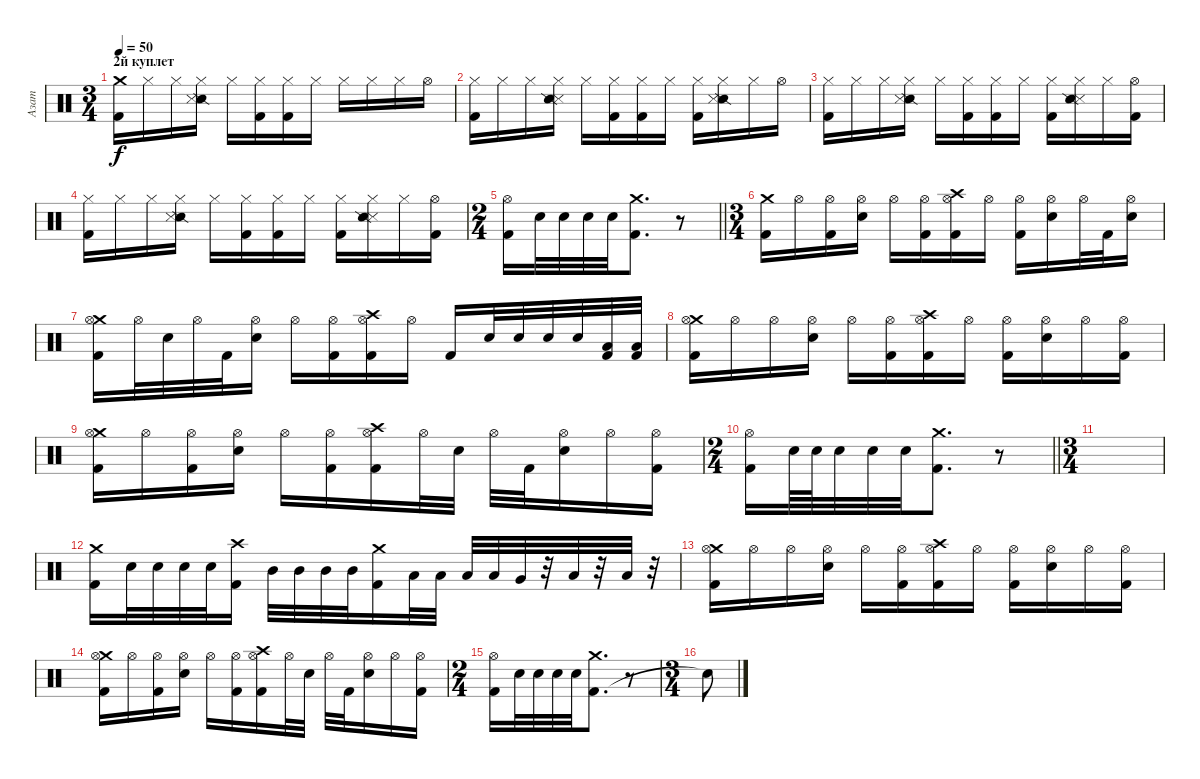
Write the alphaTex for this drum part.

\track ("Азат" "Азат") {instrument percussion}
\staff {score}
\articulation defaults
\ts (3 4)
\section ("" "2й куплет")
\tempo 50
\clef neutral
\ks c
("Crash medium (hit)" "Kick (hit) 2").16{dy f} "Hi-Hat (closed)".16 "Hi-Hat (closed)".16 ("Snare (side stick) 2" "Snare (side stick) 3" "Hi-Hat (closed)").16 "Hi-Hat (closed)".16 ("Kick (hit) 2" "Hi-Hat (closed)").16 ("Kick (hit) 2" "Hi-Hat (closed)").16 "Hi-Hat (closed)".16 "Hi-Hat (closed)".16 "Hi-Hat (closed)".16 "Hi-Hat (closed)".16 "Hi-Hat (open)".16 |
("Kick (hit) 2" "Hi-Hat (closed)").16 "Hi-Hat (closed)".16 "Hi-Hat (closed)".16 ("Snare (side stick) 3" "Snare (side stick) 2" "Hi-Hat (closed)").16 "Hi-Hat (closed)".16 ("Kick (hit) 2" "Hi-Hat (closed)").16 ("Kick (hit) 2" "Hi-Hat (closed)").16 "Hi-Hat (closed)".16 ("Kick (hit) 2" "Hi-Hat (closed)").16 ("Snare (side stick) 2" "Snare (side stick) 3" "Hi-Hat (closed)").16 "Hi-Hat (closed)".16 "Hi-Hat (open)".16 |
("Kick (hit) 2" "Hi-Hat (closed)").16 "Hi-Hat (closed)".16 "Hi-Hat (closed)".16 ("Snare (side stick) 2" "Snare (side stick) 3" "Hi-Hat (closed)").16 "Hi-Hat (closed)".16 ("Kick (hit) 2" "Hi-Hat (closed)").16 ("Kick (hit) 2" "Hi-Hat (closed)").16 "Hi-Hat (closed)".16 ("Kick (hit) 2" "Hi-Hat (closed)").16 ("Snare (side stick) 3" "Snare (side stick) 2" "Hi-Hat (closed)").16 "Hi-Hat (closed)".16 ("Kick (hit) 2" "Hi-Hat (open)").16 |
("Kick (hit) 2" "Hi-Hat (closed)").16 "Hi-Hat (closed)".16 "Hi-Hat (closed)".16 ("Snare (side stick) 2" "Snare (side stick) 3" "Hi-Hat (closed)").16 "Hi-Hat (closed)".16 ("Kick (hit) 2" "Hi-Hat (closed)").16 ("Kick (hit) 2" "Hi-Hat (closed)").16 "Hi-Hat (closed)".16 ("Kick (hit) 2" "Hi-Hat (closed)").16 ("Snare (side stick) 3" "Snare (side stick) 2" "Hi-Hat (closed)").16 "Hi-Hat (closed)".16 ("Kick (hit) 2" "Hi-Hat (open)").16 |
\ts (2 4)
\barLineRight lightlight
("Kick (hit) 2" "Hi-Hat (open)").16 "Electric Snare (hit)".32 "Electric Snare (hit)".32 "Electric Snare (hit)".32 "Electric Snare (hit)".32 ("Kick (hit) 2" "Crash medium (hit)").8{d} r.8 |
\ts (3 4)
("Crash medium (hit)" "Kick (hit) 2").16 "Hi-Hat (open)".16 ("Kick (hit) 2" "Hi-Hat (open)").16 ("Electric Snare (hit)" "Hi-Hat (open)").16 "Hi-Hat (open)".16 ("Kick (hit) 2" "Hi-Hat (open)").16 ("Crash high (hit)" "Kick (hit) 2" "Hi-Hat (open)").16 "Hi-Hat (open)".16 ("Kick (hit) 2" "Hi-Hat (open)").16 ("Electric Snare (hit)" "Hi-Hat (open)").16 "Hi-Hat (open)".32 "Kick (hit) 2".32 ("Electric Snare (hit)" "Hi-Hat (open)").16 |
("Crash medium (hit)" "Kick (hit) 2" "Hi-Hat (open)").16 "Hi-Hat (open)".32 "Electric Snare (hit)".32 "Hi-Hat (open)".32 "Kick (hit) 2".32 ("Electric Snare (hit)" "Hi-Hat (open)").16 "Hi-Hat (open)".16 ("Kick (hit) 2" "Hi-Hat (open)").16 ("Crash high (hit)" "Kick (hit) 2" "Hi-Hat (open)").16 "Hi-Hat (open)".16 "Kick (hit) 2".16 "Electric Snare (hit)".32 "Electric Snare (hit)".32 "Electric Snare (hit)".32 "Electric Snare (hit)".32 ("Low Floor Tom (hit)" "Kick (hit) 2").32 ("Low Floor Tom (hit)" "Kick (hit) 2").32 |
("Crash medium (hit)" "Kick (hit) 2" "Hi-Hat (open)").16 "Hi-Hat (open)".16 "Hi-Hat (open)".16 ("Electric Snare (hit)" "Hi-Hat (open)").16 "Hi-Hat (open)".16 ("Kick (hit) 2" "Hi-Hat (open)").16 ("Crash high (hit)" "Kick (hit) 2" "Hi-Hat (open)").16 "Hi-Hat (open)".16 ("Kick (hit) 2" "Hi-Hat (open)").16 ("Electric Snare (hit)" "Hi-Hat (open)").16 "Hi-Hat (open)".16 ("Kick (hit) 2" "Hi-Hat (open)").16 |
("Crash medium (hit)" "Kick (hit) 2" "Hi-Hat (open)").16 "Hi-Hat (open)".16 ("Kick (hit) 2" "Hi-Hat (open)").16 ("Electric Snare (hit)" "Hi-Hat (open)").16 "Hi-Hat (open)".16 ("Kick (hit) 2" "Hi-Hat (open)").16 ("Crash high (hit)" "Kick (hit) 2" "Hi-Hat (open)").16 "Hi-Hat (open)".32 "Electric Snare (hit)".32 "Hi-Hat (open)".32 "Kick (hit) 2".32 ("Electric Snare (hit)" "Hi-Hat (open)").16 "Hi-Hat (open)".16 ("Kick (hit) 2" "Hi-Hat (open)").16 |
\ts (2 4)
\barLineRight lightlight
("Kick (hit) 2" "Hi-Hat (open)").16 "Electric Snare (hit)".64 "Electric Snare (hit)".64 "Electric Snare (hit)".32 "Electric Snare (hit)".32 "Electric Snare (hit)".32 ("Kick (hit) 2" "Crash medium (hit)").8{d} r.8 |
\ts (3 4)
|
("Crash medium (hit)" "Kick (hit) 2").16 "Electric Snare (hit)".32 "Electric Snare (hit)".32 "Electric Snare (hit)".32 "Electric Snare (hit)".32 ("Crash high (hit)" "Kick (hit) 2").16 "Mid Tom (hit)".32 "Mid Tom (hit)".32 "Mid Tom (hit)".32 "Mid Tom (hit)".32 ("Crash medium (hit)" "Kick (hit) 2").16 "Low Tom (hit)".32 "Low Tom (hit)".32 "Low Tom (hit)".32 "Low Tom (hit)".32 "Very Low Tom (hit)".32 r.32 "Low Floor Tom (hit)".32 r.32 "Low Floor Tom (hit)".32 r.32 |
("Crash medium (hit)" "Kick (hit) 2" "Hi-Hat (open)").16 "Hi-Hat (open)".16 "Hi-Hat (open)".16 ("Electric Snare (hit)" "Hi-Hat (open)").16 "Hi-Hat (open)".16 ("Kick (hit) 2" "Hi-Hat (open)").16 ("Crash high (hit)" "Kick (hit) 2" "Hi-Hat (open)").16 "Hi-Hat (open)".16 ("Kick (hit) 2" "Hi-Hat (open)").16 ("Electric Snare (hit)" "Hi-Hat (open)").16 "Hi-Hat (open)".16 ("Kick (hit) 2" "Hi-Hat (open)").16 |
("Crash medium (hit)" "Kick (hit) 2" "Hi-Hat (open)").16 "Hi-Hat (open)".16 ("Kick (hit) 2" "Hi-Hat (open)").16 ("Electric Snare (hit)" "Hi-Hat (open)").16 "Hi-Hat (open)".16 ("Kick (hit) 2" "Hi-Hat (open)").16 ("Crash high (hit)" "Kick (hit) 2" "Hi-Hat (open)").16 "Hi-Hat (open)".32 "Electric Snare (hit)".32 "Hi-Hat (open)".32 "Kick (hit) 2".32 ("Electric Snare (hit)" "Hi-Hat (open)").16 "Hi-Hat (open)".16 ("Kick (hit) 2" "Hi-Hat (open)").16 |
\ts (2 4)
("Kick (hit) 2" "Hi-Hat (open)").16 "Electric Snare (hit)".32 "Electric Snare (hit)".32 "Electric Snare (hit)".32 "Electric Snare (hit)".32 ("Kick (hit) 2" "Crash medium (hit)").8{d} r.8 |
\ts (3 4)
"Snare (hit)"{t}.8
